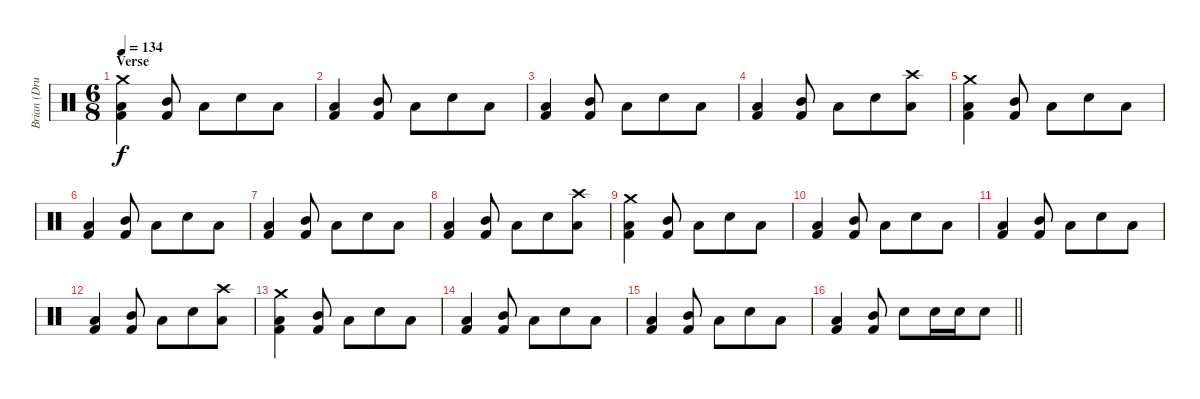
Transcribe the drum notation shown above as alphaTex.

\track ("Brian (Drums)" "Brian (Dru") {instrument percussion}
\staff {score}
\articulation defaults
\ts (6 8)
\section ("" "Verse")
\tempo 134
\clef neutral
\ks c
("Crash medium (hit)" "Low Tom (hit)" "Kick (hit) 2").4{dy f} ("Mid Tom (hit)" "Kick (hit) 2").8 "Low Tom (hit)".8 "Electric Snare (hit)".8 "Low Tom (hit)".8 |
("Low Tom (hit)" "Kick (hit) 2").4 ("Mid Tom (hit)" "Kick (hit) 2").8 "Low Tom (hit)".8 "Electric Snare (hit)".8 "Low Tom (hit)".8 |
("Low Tom (hit)" "Kick (hit) 2").4 ("Mid Tom (hit)" "Kick (hit) 2").8 "Low Tom (hit)".8 "Electric Snare (hit)".8 "Low Tom (hit)".8 |
("Low Tom (hit)" "Kick (hit) 2").4 ("Mid Tom (hit)" "Kick (hit) 2").8 "Low Tom (hit)".8 "Electric Snare (hit)".8 ("Crash high (hit)" "Low Tom (hit)").8 |
("Crash medium (hit)" "Low Tom (hit)" "Kick (hit) 2").4 ("Mid Tom (hit)" "Kick (hit) 2").8 "Low Tom (hit)".8 "Electric Snare (hit)".8 "Low Tom (hit)".8 |
("Low Tom (hit)" "Kick (hit) 2").4 ("Mid Tom (hit)" "Kick (hit) 2").8 "Low Tom (hit)".8 "Electric Snare (hit)".8 "Low Tom (hit)".8 |
("Low Tom (hit)" "Kick (hit) 2").4 ("Mid Tom (hit)" "Kick (hit) 2").8 "Low Tom (hit)".8 "Electric Snare (hit)".8 "Low Tom (hit)".8 |
("Low Tom (hit)" "Kick (hit) 2").4 ("Mid Tom (hit)" "Kick (hit) 2").8 "Low Tom (hit)".8 "Electric Snare (hit)".8 ("Crash high (hit)" "Low Tom (hit)").8 |
("Crash medium (hit)" "Low Tom (hit)" "Kick (hit) 2").4 ("Mid Tom (hit)" "Kick (hit) 2").8 "Low Tom (hit)".8 "Electric Snare (hit)".8 "Low Tom (hit)".8 |
("Low Tom (hit)" "Kick (hit) 2").4 ("Mid Tom (hit)" "Kick (hit) 2").8 "Low Tom (hit)".8 "Electric Snare (hit)".8 "Low Tom (hit)".8 |
("Low Tom (hit)" "Kick (hit) 2").4 ("Mid Tom (hit)" "Kick (hit) 2").8 "Low Tom (hit)".8 "Electric Snare (hit)".8 "Low Tom (hit)".8 |
("Low Tom (hit)" "Kick (hit) 2").4 ("Mid Tom (hit)" "Kick (hit) 2").8 "Low Tom (hit)".8 "Electric Snare (hit)".8 ("Crash high (hit)" "Low Tom (hit)").8 |
("Crash medium (hit)" "Low Tom (hit)" "Kick (hit) 2").4 ("Mid Tom (hit)" "Kick (hit) 2").8 "Low Tom (hit)".8 "Electric Snare (hit)".8 "Low Tom (hit)".8 |
("Low Tom (hit)" "Kick (hit) 2").4 ("Mid Tom (hit)" "Kick (hit) 2").8 "Low Tom (hit)".8 "Electric Snare (hit)".8 "Low Tom (hit)".8 |
("Low Tom (hit)" "Kick (hit) 2").4 ("Mid Tom (hit)" "Kick (hit) 2").8 "Low Tom (hit)".8 "Electric Snare (hit)".8 "Low Tom (hit)".8 |
\barLineRight lightlight
("Low Tom (hit)" "Kick (hit) 2").4 ("Mid Tom (hit)" "Kick (hit) 2").8 "Electric Snare (hit)".8 "Electric Snare (hit)".16 "Electric Snare (hit)".16 "Electric Snare (hit)".8
